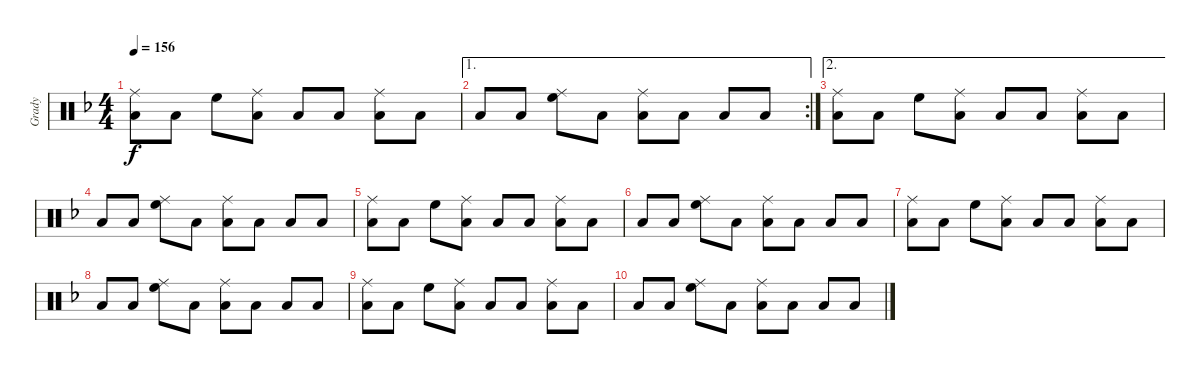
\track ("Grady" "Grady") {instrument percussion}
\staff {score}
\articulation defaults
\ts (4 4)
\tempo 156
\clef neutral
\ks f
("Ride (middle)" "Low Tom (hit)").8{dy f} "Low Tom (hit)".8 "High Floor Tom (hit)".8 ("Ride (middle)" "Low Tom (hit)").8 "Low Tom (hit)".8 "Low Tom (hit)".8 ("Ride (middle)" "Low Tom (hit)").8 "Low Tom (hit)".8 |
\ae 1
\rc 2 "Low Tom (hit)".8 "Low Tom (hit)".8
("High Floor Tom (hit)" "Ride (middle)").8 "Low Tom (hit)".8 ("Ride (middle)" "Low Tom (hit)").8 "Low Tom (hit)".8 "Low Tom (hit)".8 "Low Tom (hit)".8 |
\ae 2
("Ride (middle)" "Low Tom (hit)").8 "Low Tom (hit)".8 "High Floor Tom (hit)".8 ("Ride (middle)" "Low Tom (hit)").8 "Low Tom (hit)".8 "Low Tom (hit)".8 ("Ride (middle)" "Low Tom (hit)").8 "Low Tom (hit)".8 |
"Low Tom (hit)".8 "Low Tom (hit)".8 ("High Floor Tom (hit)" "Ride (middle)").8 "Low Tom (hit)".8 ("Ride (middle)" "Low Tom (hit)").8 "Low Tom (hit)".8 "Low Tom (hit)".8 "Low Tom (hit)".8 |
("Ride (middle)" "Low Tom (hit)").8 "Low Tom (hit)".8 "High Floor Tom (hit)".8 ("Ride (middle)" "Low Tom (hit)").8 "Low Tom (hit)".8 "Low Tom (hit)".8 ("Ride (middle)" "Low Tom (hit)").8 "Low Tom (hit)".8 |
"Low Tom (hit)".8 "Low Tom (hit)".8 ("High Floor Tom (hit)" "Ride (middle)").8 "Low Tom (hit)".8 ("Ride (middle)" "Low Tom (hit)").8 "Low Tom (hit)".8 "Low Tom (hit)".8 "Low Tom (hit)".8 |
("Ride (middle)" "Low Tom (hit)").8 "Low Tom (hit)".8 "High Floor Tom (hit)".8 ("Ride (middle)" "Low Tom (hit)").8 "Low Tom (hit)".8 "Low Tom (hit)".8 ("Ride (middle)" "Low Tom (hit)").8 "Low Tom (hit)".8 |
"Low Tom (hit)".8 "Low Tom (hit)".8 ("High Floor Tom (hit)" "Ride (middle)").8 "Low Tom (hit)".8 ("Ride (middle)" "Low Tom (hit)").8 "Low Tom (hit)".8 "Low Tom (hit)".8 "Low Tom (hit)".8 |
("Ride (middle)" "Low Tom (hit)").8 "Low Tom (hit)".8 "High Floor Tom (hit)".8 ("Ride (middle)" "Low Tom (hit)").8 "Low Tom (hit)".8 "Low Tom (hit)".8 ("Ride (middle)" "Low Tom (hit)").8 "Low Tom (hit)".8 |
"Low Tom (hit)".8 "Low Tom (hit)".8 ("High Floor Tom (hit)" "Ride (middle)").8 "Low Tom (hit)".8 ("Ride (middle)" "Low Tom (hit)").8 "Low Tom (hit)".8 "Low Tom (hit)".8 "Low Tom (hit)".8
